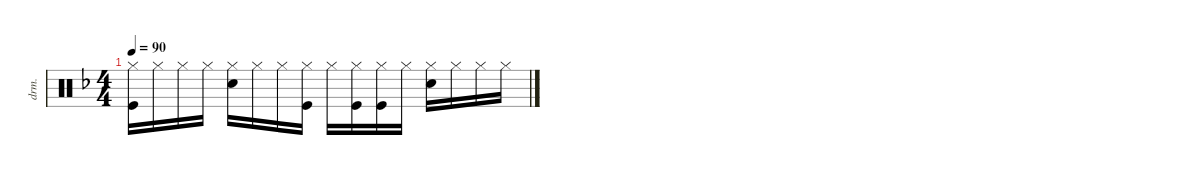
\defaultSystemsLayout 4
\hideDynamics
\bracketExtendMode nobrackets
\track ("Drumkit" "drm.") {instrument percussion}
\staff {score}
\articulation defaults
\ts (4 4)
\tempo 90
\clef neutral
\ks f
("Hi-Hat (closed)"{acc forcenatural} "Kick (hit)"{acc forcenatural}).16{dy mf} "Hi-Hat (closed)"{acc forcenatural}.16 "Hi-Hat (closed)"{acc forcenatural}.16 "Hi-Hat (closed)"{acc forcenatural}.16 ("Hi-Hat (closed)"{acc forcenatural} "Snare (hit) 2"{acc forcenatural}).16 "Hi-Hat (closed)"{acc forcenatural}.16 "Hi-Hat (closed)"{acc forcenatural}.16 ("Hi-Hat (closed)"{acc forcenatural} "Kick (hit)"{acc forcenatural}).16 "Hi-Hat (closed)"{acc forcenatural}.16 ("Hi-Hat (closed)"{acc forcenatural} "Kick (hit)"{acc forcenatural}).16 ("Hi-Hat (closed)"{acc forcenatural} "Kick (hit)"{acc forcenatural}).16 "Hi-Hat (closed)"{acc forcenatural}.16 ("Hi-Hat (closed)"{acc forcenatural} "Snare (hit) 2"{acc forcenatural}).16 "Hi-Hat (closed)"{acc forcenatural}.16 "Hi-Hat (closed)"{acc forcenatural}.16 "Hi-Hat (closed)"{acc forcenatural}.16
